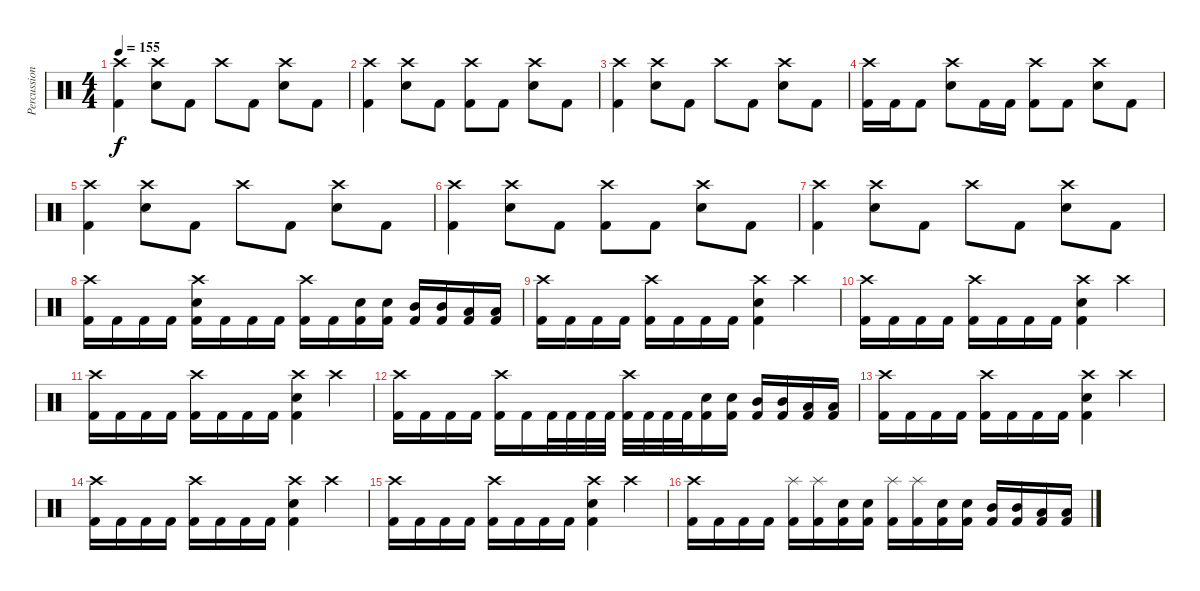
\track ("Percussion" "Percussion") {instrument percussion}
\staff {score}
\articulation defaults
\ts (4 4)
\tempo 155
\clef neutral
\ks c
("Crash high (hit)" "Kick (hit) 2").4{dy f} ("Crash high (hit)" "Electric Snare (hit)").8 "Kick (hit) 2".8 "Crash high (hit)".8 "Kick (hit) 2".8 ("Crash high (hit)" "Electric Snare (hit)").8 "Kick (hit) 2".8 |
("Crash high (hit)" "Kick (hit) 2").4 ("Crash high (hit)" "Electric Snare (hit)").8 "Kick (hit) 2".8 ("Crash high (hit)" "Kick (hit) 2").8 "Kick (hit) 2".8 ("Crash high (hit)" "Electric Snare (hit)").8 "Kick (hit) 2".8 |
("Crash high (hit)" "Kick (hit) 2").4 ("Crash high (hit)" "Electric Snare (hit)").8 "Kick (hit) 2".8 "Crash high (hit)".8 "Kick (hit) 2".8 ("Crash high (hit)" "Electric Snare (hit)").8 "Kick (hit) 2".8 |
("Crash high (hit)" "Kick (hit) 2").16 "Kick (hit) 2".16 "Kick (hit) 2".8 ("Crash high (hit)" "Electric Snare (hit)").8 "Kick (hit) 2".16 "Kick (hit) 2".16 ("Crash high (hit)" "Kick (hit) 2").8 "Kick (hit) 2".8 ("Crash high (hit)" "Electric Snare (hit)").8 "Kick (hit) 2".8 |
("Crash high (hit)" "Kick (hit) 2").4 ("Crash high (hit)" "Electric Snare (hit)").8 "Kick (hit) 2".8 "Crash high (hit)".8 "Kick (hit) 2".8 ("Crash high (hit)" "Electric Snare (hit)").8 "Kick (hit) 2".8 |
("Crash high (hit)" "Kick (hit) 2").4 ("Crash high (hit)" "Electric Snare (hit)").8 "Kick (hit) 2".8 ("Crash high (hit)" "Kick (hit) 2").8 "Kick (hit) 2".8 ("Crash high (hit)" "Electric Snare (hit)").8 "Kick (hit) 2".8 |
("Crash high (hit)" "Kick (hit) 2").4 ("Crash high (hit)" "Electric Snare (hit)").8 "Kick (hit) 2".8 "Crash high (hit)".8 "Kick (hit) 2".8 ("Crash high (hit)" "Electric Snare (hit)").8 "Kick (hit) 2".8 |
("Crash high (hit)" "Kick (hit) 2").16 "Kick (hit) 2".16 "Kick (hit) 2".16 "Kick (hit) 2".16 ("Crash high (hit)" "Electric Snare (hit)" "Kick (hit) 2").16 "Kick (hit) 2".16 "Kick (hit) 2".16 "Kick (hit) 2".16 ("Crash high (hit)" "Kick (hit) 2").16 "Kick (hit) 2".16 ("Electric Snare (hit)" "Kick (hit) 2").16 ("Electric Snare (hit)" "Kick (hit) 2").16 ("Mid Tom (hit)" "Kick (hit) 2").16 ("Mid Tom (hit)" "Kick (hit) 2").16 ("Low Tom (hit)" "Kick (hit) 2").16 ("Low Tom (hit)" "Kick (hit) 2").16 |
("Crash high (hit)" "Kick (hit) 2").16 "Kick (hit) 2".16 "Kick (hit) 2".16 "Kick (hit) 2".16 ("Crash high (hit)" "Kick (hit) 2").16 "Kick (hit) 2".16 "Kick (hit) 2".16 "Kick (hit) 2".16 ("Crash high (hit)" "Electric Snare (hit)" "Kick (hit) 2").4 "Crash high (hit)".4 |
("Crash high (hit)" "Kick (hit) 2").16 "Kick (hit) 2".16 "Kick (hit) 2".16 "Kick (hit) 2".16 ("Crash high (hit)" "Kick (hit) 2").16 "Kick (hit) 2".16 "Kick (hit) 2".16 "Kick (hit) 2".16 ("Crash high (hit)" "Electric Snare (hit)" "Kick (hit) 2").4 "Crash high (hit)".4 |
("Crash high (hit)" "Kick (hit) 2").16 "Kick (hit) 2".16 "Kick (hit) 2".16 "Kick (hit) 2".16 ("Crash high (hit)" "Kick (hit) 2").16 "Kick (hit) 2".16 "Kick (hit) 2".16 "Kick (hit) 2".16 ("Crash high (hit)" "Electric Snare (hit)" "Kick (hit) 2").4 "Crash high (hit)".4 |
("Crash high (hit)" "Kick (hit) 2").16 "Kick (hit) 2".16 "Kick (hit) 2".16 "Kick (hit) 2".16 ("Crash high (hit)" "Kick (hit) 2").16 "Kick (hit) 2".16 "Kick (hit) 2".32 "Kick (hit) 2".32 "Kick (hit) 2".32 "Kick (hit) 2".32 ("Crash high (hit)" "Kick (hit) 2").32 "Kick (hit) 2".32 "Kick (hit) 2".32 "Kick (hit) 2".32 ("Electric Snare (hit)" "Kick (hit) 2").16 ("Electric Snare (hit)" "Kick (hit) 2").16 ("Mid Tom (hit)" "Kick (hit) 2").16 ("Mid Tom (hit)" "Kick (hit) 2").16 ("Low Tom (hit)" "Kick (hit) 2").16 ("Low Tom (hit)" "Kick (hit) 2").16 |
("Crash high (hit)" "Kick (hit) 2").16 "Kick (hit) 2".16 "Kick (hit) 2".16 "Kick (hit) 2".16 ("Crash high (hit)" "Kick (hit) 2").16 "Kick (hit) 2".16 "Kick (hit) 2".16 "Kick (hit) 2".16 ("Crash high (hit)" "Electric Snare (hit)" "Kick (hit) 2").4 "Crash high (hit)".4 |
("Crash high (hit)" "Kick (hit) 2").16 "Kick (hit) 2".16 "Kick (hit) 2".16 "Kick (hit) 2".16 ("Crash high (hit)" "Kick (hit) 2").16 "Kick (hit) 2".16 "Kick (hit) 2".16 "Kick (hit) 2".16 ("Crash high (hit)" "Electric Snare (hit)" "Kick (hit) 2").4 "Crash high (hit)".4 |
("Crash high (hit)" "Kick (hit) 2").16 "Kick (hit) 2".16 "Kick (hit) 2".16 "Kick (hit) 2".16 ("Crash high (hit)" "Kick (hit) 2").16 "Kick (hit) 2".16 "Kick (hit) 2".16 "Kick (hit) 2".16 ("Crash high (hit)" "Electric Snare (hit)" "Kick (hit) 2").4 "Crash high (hit)".4 |
("Crash high (hit)" "Kick (hit) 2").16 "Kick (hit) 2".16 "Kick (hit) 2".16 "Kick (hit) 2".16 ("Splash (hit)" "Kick (hit) 2").16 ("Splash (hit)" "Kick (hit) 2").16 ("Electric Snare (hit)" "Kick (hit) 2").16 ("Electric Snare (hit)" "Kick (hit) 2").16 ("Splash (hit)" "Kick (hit) 2").16 ("Splash (hit)" "Kick (hit) 2").16 ("Electric Snare (hit)" "Kick (hit) 2").16 ("Electric Snare (hit)" "Kick (hit) 2").16 ("Mid Tom (hit)" "Kick (hit) 2").16 ("Mid Tom (hit)" "Kick (hit) 2").16 ("Low Tom (hit)" "Kick (hit) 2").16 ("Low Tom (hit)" "Kick (hit) 2").16
